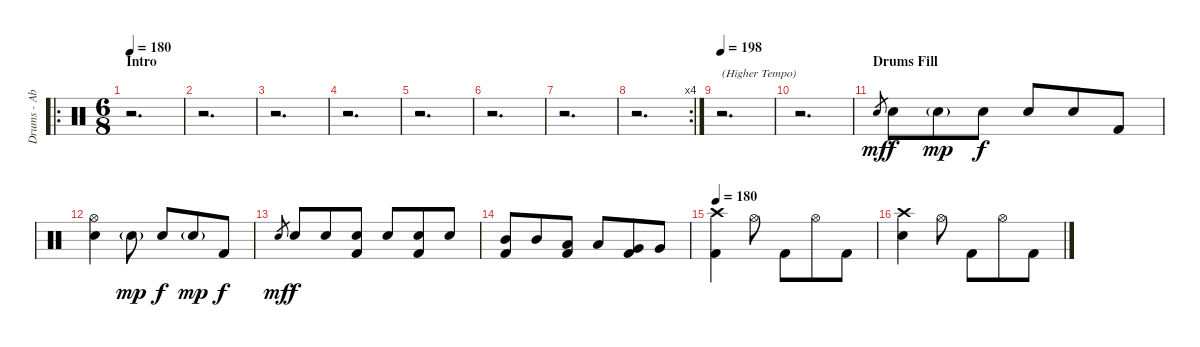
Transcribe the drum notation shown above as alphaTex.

\track ("Drums - Abe Cunningham" "Drums - Ab") {instrument percussion}
\staff {score}
\articulation defaults
\ro
\ts (6 8)
\section ("" "Intro")
\tempo 180
\tempo 176
\tempo 180
\clef neutral
\ks c
r.2{d dy mf} |
r.2{d} |
r.2{d} |
r.2{d} |
r.2{d} |
r.2{d} |
r.2{d} |
\rc 4
r.2{d} |
\tempo 198
r.2{d txt "(Higher Tempo)"} |
r.2{d} |
\section ("" "Drums Fill")
"Electric Snare (hit)".8{gr} "Electric Snare (hit)".8{dy f} "Electric Snare (hit)"{g}.8{dy mp} "Electric Snare (hit)".8{dy f} "Electric Snare (hit)".8 "Electric Snare (hit)".8 "Kick (hit) 2".8 |
("Hi-Hat (open)" "Electric Snare (hit)").4 "Electric Snare (hit)"{g}.8{dy mp} "Electric Snare (hit)".8{dy f} "Electric Snare (hit)"{g}.8{dy mp} "Kick (hit) 2".8{dy f} |
"Electric Snare (hit)".8{gr dy mf} "Electric Snare (hit)".8{dy f} "Electric Snare (hit)".8 ("Electric Snare (hit)" "Kick (hit) 2").8 "Electric Snare (hit)".8 ("Electric Snare (hit)" "Kick (hit) 2").8 "Electric Snare (hit)".8 |
("Mid Tom (hit)" "Kick (hit) 2").8 "Mid Tom (hit)".8 ("Low Tom (hit)" "Kick (hit) 2").8 "Low Tom (hit)".8 ("Very Low Tom (hit)" "Kick (hit) 2").8 "Very Low Tom (hit)".8 |
\tempo 180
("Crash high (hit)" "Kick (hit) 2").4 "Hi-Hat (open)".8 "Kick (hit) 2".8 "Hi-Hat (open)".8 "Kick (hit) 2".8 |
("Crash high (hit)" "Electric Snare (hit)").4 "Hi-Hat (open)".8 "Kick (hit) 2".8 "Hi-Hat (open)".8 "Kick (hit) 2".8
